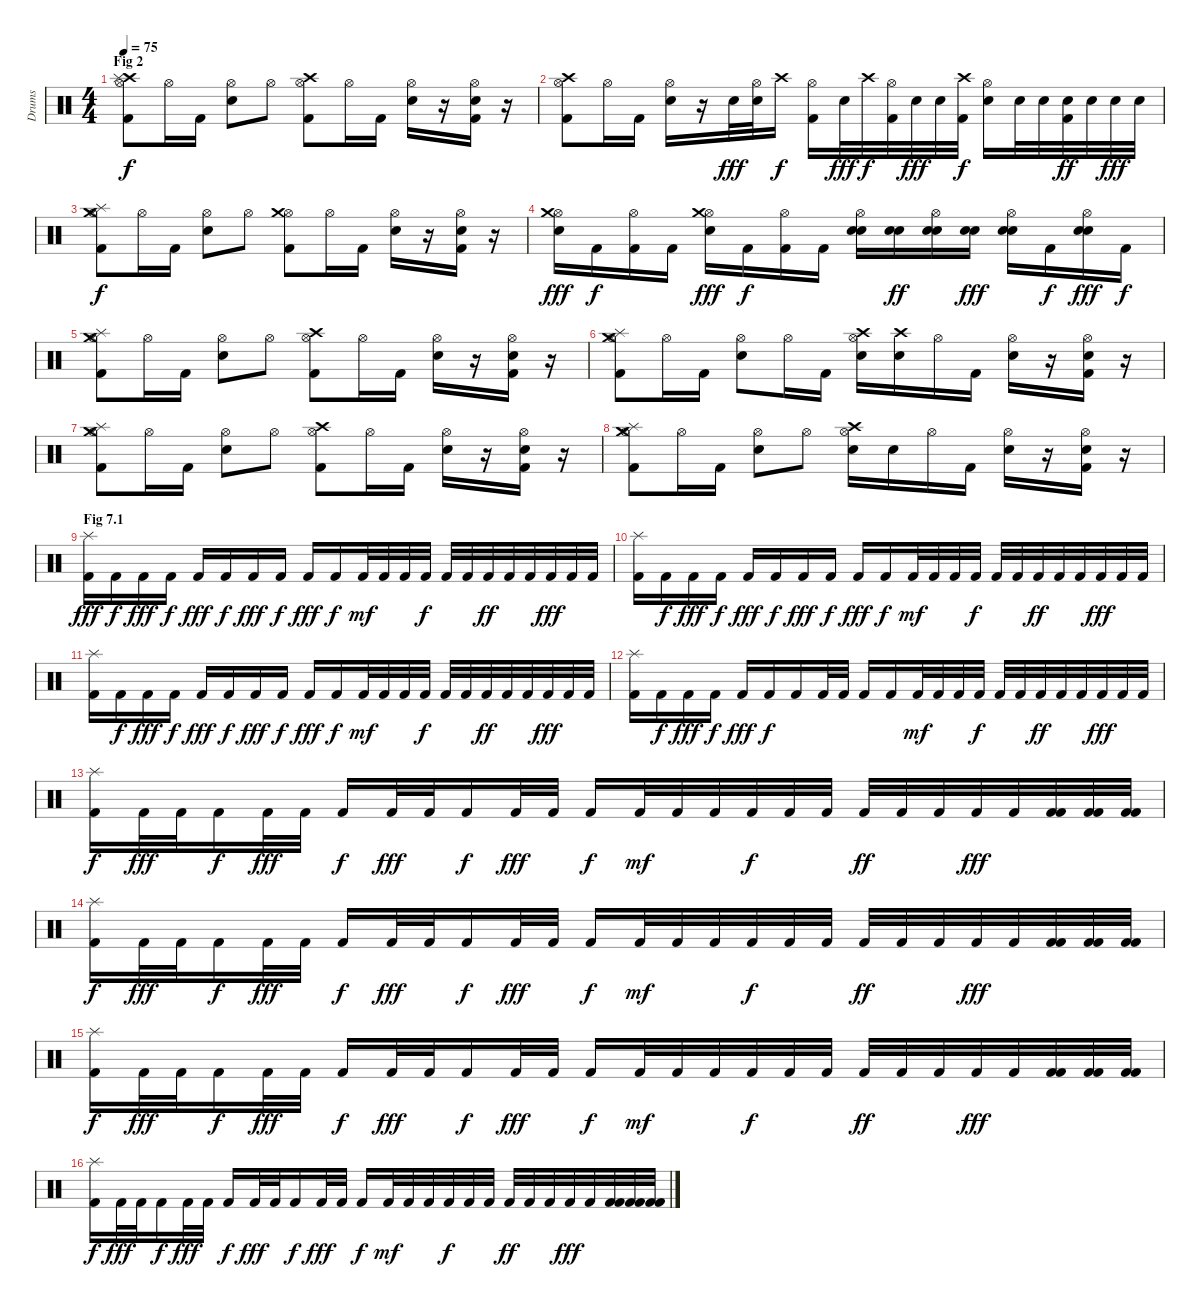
\track ("Drums" "Drums") {instrument percussion}
\staff {score}
\articulation defaults
\ts (4 4)
\section ("" "Fig 2")
\tempo 75
\clef neutral
\ks c
("Hi-Hat (open)" "Kick (hit) 2" "Crash high (hit)" "Splash (hit)").8{dy f} "Hi-Hat (open)".16 "Kick (hit) 2".16 ("Hi-Hat (open)" "Snare (hit) 2").8 "Hi-Hat (open)".8 ("Hi-Hat (open)" "Kick (hit) 2" "Crash high (hit)").8 "Hi-Hat (open)".16 "Kick (hit) 2".16 ("Hi-Hat (open)" "Snare (hit) 2").16 r.16 ("Hi-Hat (open)" "Kick (hit) 2" "Snare (hit) 2").16 r.16 |
("Hi-Hat (open)" "Kick (hit) 2" "Crash high (hit)").8 "Hi-Hat (open)".16 "Kick (hit) 2".16 ("Hi-Hat (open)" "Snare (hit) 2").16 r.16 "Snare (hit) 2".32{dy fff} ("Hi-Hat (open)" "Snare (hit) 2").32 "Crash high (hit)".16{dy f} ("Hi-Hat (open)" "Kick (hit) 2").16 "Snare (hit) 2".32{dy fff} "Crash high (hit)".32{dy f} ("Hi-Hat (open)" "Kick (hit) 2").32 "Snare (hit) 2".32{dy fff} "Snare (hit) 2".32 ("Kick (hit) 2" "Crash high (hit)").32{dy f} ("Hi-Hat (open)" "Snare (hit) 2").16 "Snare (hit) 2".32 "Snare (hit) 2".32 ("Kick (hit) 2" "Snare (hit) 2").32{dy ff} "Snare (hit) 2".32 "Snare (hit) 2".32{dy fff} "Snare (hit) 2".32 |
("Hi-Hat (open)" "Kick (hit) 2" "Crash medium (hit)" "Splash (hit)").8{dy f} "Hi-Hat (open)".16 "Kick (hit) 2".16 ("Hi-Hat (open)" "Snare (hit) 2").8 "Hi-Hat (open)".8 ("Hi-Hat (open)" "Kick (hit) 2" "Crash medium (hit)").8 "Hi-Hat (open)".16 "Kick (hit) 2".16 ("Hi-Hat (open)" "Snare (hit) 2").16 r.16 ("Hi-Hat (open)" "Kick (hit) 2" "Snare (hit) 2").16 r.16 |
("Hi-Hat (open)" "Snare (hit) 2" "Crash medium (hit)").16{dy fff} "Kick (hit) 2".16{dy f} ("Hi-Hat (open)" "Kick (hit) 2").16 "Kick (hit) 2".16 ("Hi-Hat (open)" "Snare (hit) 2" "Crash medium (hit)").16{dy fff} "Kick (hit) 2".16{dy f} ("Hi-Hat (open)" "Kick (hit) 2").16 "Kick (hit) 2".16 ("Hi-Hat (open)" "Snare (hit) 2" "Snare (hit) 2").16 ("Snare (hit) 2" "Snare (hit) 2").16{dy ff} ("Hi-Hat (open)" "Snare (hit) 2" "Snare (hit) 2").16 ("Snare (hit) 2" "Snare (hit) 2").16{dy fff} ("Hi-Hat (open)" "Snare (hit) 2" "Snare (hit) 2").16 "Kick (hit) 2".16{dy f} ("Hi-Hat (open)" "Snare (hit) 2" "Snare (hit) 2").16{dy fff} "Kick (hit) 2".16{dy f} |
("Hi-Hat (open)" "Kick (hit) 2" "Crash medium (hit)" "Splash (hit)").8 "Hi-Hat (open)".16 "Kick (hit) 2".16 ("Hi-Hat (open)" "Snare (hit) 2").8 "Hi-Hat (open)".8 ("Hi-Hat (open)" "Kick (hit) 2" "Crash high (hit)").8 "Hi-Hat (open)".16 "Kick (hit) 2".16 ("Hi-Hat (open)" "Snare (hit) 2").16 r.16 ("Hi-Hat (open)" "Kick (hit) 2" "Snare (hit) 2").16 r.16 |
("Hi-Hat (open)" "Kick (hit) 2" "Crash medium (hit)" "Splash (hit)").8 "Hi-Hat (open)".16 "Kick (hit) 2".16 ("Hi-Hat (open)" "Snare (hit) 2").8 "Hi-Hat (open)".16 "Kick (hit) 2".16 ("Hi-Hat (open)" "Snare (hit) 2" "Crash high (hit)").16 ("Snare (hit) 2" "Crash high (hit)").16 "Hi-Hat (open)".16 "Kick (hit) 2".16 ("Hi-Hat (open)" "Snare (hit) 2").16 r.16 ("Hi-Hat (open)" "Kick (hit) 2" "Snare (hit) 2").16 r.16 |
("Hi-Hat (open)" "Kick (hit) 2" "Crash medium (hit)" "Splash (hit)").8 "Hi-Hat (open)".16 "Kick (hit) 2".16 ("Hi-Hat (open)" "Snare (hit) 2").8 "Hi-Hat (open)".8 ("Hi-Hat (open)" "Kick (hit) 2" "Crash high (hit)").8 "Hi-Hat (open)".16 "Kick (hit) 2".16 ("Hi-Hat (open)" "Snare (hit) 2").16 r.16 ("Hi-Hat (open)" "Kick (hit) 2" "Snare (hit) 2").16 r.16 |
("Hi-Hat (open)" "Kick (hit) 2" "Crash medium (hit)" "Splash (hit)").8 "Hi-Hat (open)".16 "Kick (hit) 2".16 ("Hi-Hat (open)" "Snare (hit) 2").8 "Hi-Hat (open)".8 ("Hi-Hat (open)" "Snare (hit) 2" "Crash high (hit)").16 "Snare (hit) 2".16 "Hi-Hat (open)".16 "Kick (hit) 2".16 ("Hi-Hat (open)" "Snare (hit) 2").16 r.16 ("Hi-Hat (open)" "Kick (hit) 2" "Snare (hit) 2").16 r.16 |
\section ("" "Fig 7.1")
("Kick (hit) 2" "Splash (hit)").16{dy fff} "Kick (hit) 2".16{dy f} "Kick (hit) 2".16{dy fff} "Kick (hit) 2".16{dy f} "Kick (hit) 2".16{dy fff} "Kick (hit) 2".16{dy f} "Kick (hit) 2".16{dy fff} "Kick (hit) 2".16{dy f} "Kick (hit) 2".16{dy fff} "Kick (hit) 2".16{dy f} "Kick (hit) 2".32{dy mf} "Kick (hit) 2".32 "Kick (hit) 2".32 "Kick (hit) 2".32{dy f} "Kick (hit) 2".32 "Kick (hit) 2".32 "Kick (hit) 2".32{dy ff} "Kick (hit) 2".32 "Kick (hit) 2".32 "Kick (hit) 2".32{dy fff} "Kick (hit) 2".32 "Kick (hit) 2".32 |
("Kick (hit) 2" "Splash (hit)").16 "Kick (hit) 2".16{dy f} "Kick (hit) 2".16{dy fff} "Kick (hit) 2".16{dy f} "Kick (hit) 2".16{dy fff} "Kick (hit) 2".16{dy f} "Kick (hit) 2".16{dy fff} "Kick (hit) 2".16{dy f} "Kick (hit) 2".16{dy fff} "Kick (hit) 2".16{dy f} "Kick (hit) 2".32{dy mf} "Kick (hit) 2".32 "Kick (hit) 2".32 "Kick (hit) 2".32{dy f} "Kick (hit) 2".32 "Kick (hit) 2".32 "Kick (hit) 2".32{dy ff} "Kick (hit) 2".32 "Kick (hit) 2".32 "Kick (hit) 2".32{dy fff} "Kick (hit) 2".32 "Kick (hit) 2".32 |
("Kick (hit) 2" "Splash (hit)").16 "Kick (hit) 2".16{dy f} "Kick (hit) 2".16{dy fff} "Kick (hit) 2".16{dy f} "Kick (hit) 2".16{dy fff} "Kick (hit) 2".16{dy f} "Kick (hit) 2".16{dy fff} "Kick (hit) 2".16{dy f} "Kick (hit) 2".16{dy fff} "Kick (hit) 2".16{dy f} "Kick (hit) 2".32{dy mf} "Kick (hit) 2".32 "Kick (hit) 2".32 "Kick (hit) 2".32{dy f} "Kick (hit) 2".32 "Kick (hit) 2".32 "Kick (hit) 2".32{dy ff} "Kick (hit) 2".32 "Kick (hit) 2".32 "Kick (hit) 2".32{dy fff} "Kick (hit) 2".32 "Kick (hit) 2".32 |
("Kick (hit) 2" "Splash (hit)").16 "Kick (hit) 2".16{dy f} "Kick (hit) 2".16{dy fff} "Kick (hit) 2".16{dy f} "Kick (hit) 2".16{dy fff} "Kick (hit) 2".16{dy f} "Kick (hit) 2".16 "Kick (hit) 2".32 "Kick (hit) 2".32 "Kick (hit) 2".16 "Kick (hit) 2".16 "Kick (hit) 2".32{dy mf} "Kick (hit) 2".32 "Kick (hit) 2".32 "Kick (hit) 2".32{dy f} "Kick (hit) 2".32 "Kick (hit) 2".32 "Kick (hit) 2".32{dy ff} "Kick (hit) 2".32 "Kick (hit) 2".32 "Kick (hit) 2".32{dy fff} "Kick (hit) 2".32 "Kick (hit) 2".32 |
("Kick (hit) 2" "Splash (hit)").16{dy f} "Kick (hit) 2".32{dy fff} "Kick (hit) 2".32 "Kick (hit) 2".16{dy f} "Kick (hit) 2".32{dy fff} "Kick (hit) 2".32 "Kick (hit) 2".16{dy f} "Kick (hit) 2".32{dy fff} "Kick (hit) 2".32 "Kick (hit) 2".16{dy f} "Kick (hit) 2".32{dy fff} "Kick (hit) 2".32 "Kick (hit) 2".16{dy f} "Kick (hit) 2".32{dy mf} "Kick (hit) 2".32 "Kick (hit) 2".32 "Kick (hit) 2".32{dy f} "Kick (hit) 2".32 "Kick (hit) 2".32 "Kick (hit) 2".32{dy ff} "Kick (hit) 2".32 "Kick (hit) 2".32 "Kick (hit) 2".32{dy fff} "Kick (hit) 2".32 ("Kick (hit) 2" "Kick (hit) 2").32 ("Kick (hit) 2" "Kick (hit) 2").32 ("Kick (hit) 2" "Kick (hit) 2").32 |
("Kick (hit) 2" "Splash (hit)").16{dy f} "Kick (hit) 2".32{dy fff} "Kick (hit) 2".32 "Kick (hit) 2".16{dy f} "Kick (hit) 2".32{dy fff} "Kick (hit) 2".32 "Kick (hit) 2".16{dy f} "Kick (hit) 2".32{dy fff} "Kick (hit) 2".32 "Kick (hit) 2".16{dy f} "Kick (hit) 2".32{dy fff} "Kick (hit) 2".32 "Kick (hit) 2".16{dy f} "Kick (hit) 2".32{dy mf} "Kick (hit) 2".32 "Kick (hit) 2".32 "Kick (hit) 2".32{dy f} "Kick (hit) 2".32 "Kick (hit) 2".32 "Kick (hit) 2".32{dy ff} "Kick (hit) 2".32 "Kick (hit) 2".32 "Kick (hit) 2".32{dy fff} "Kick (hit) 2".32 ("Kick (hit) 2" "Kick (hit) 2").32 ("Kick (hit) 2" "Kick (hit) 2").32 ("Kick (hit) 2" "Kick (hit) 2").32 |
("Kick (hit) 2" "Splash (hit)").16{dy f} "Kick (hit) 2".32{dy fff} "Kick (hit) 2".32 "Kick (hit) 2".16{dy f} "Kick (hit) 2".32{dy fff} "Kick (hit) 2".32 "Kick (hit) 2".16{dy f} "Kick (hit) 2".32{dy fff} "Kick (hit) 2".32 "Kick (hit) 2".16{dy f} "Kick (hit) 2".32{dy fff} "Kick (hit) 2".32 "Kick (hit) 2".16{dy f} "Kick (hit) 2".32{dy mf} "Kick (hit) 2".32 "Kick (hit) 2".32 "Kick (hit) 2".32{dy f} "Kick (hit) 2".32 "Kick (hit) 2".32 "Kick (hit) 2".32{dy ff} "Kick (hit) 2".32 "Kick (hit) 2".32 "Kick (hit) 2".32{dy fff} "Kick (hit) 2".32 ("Kick (hit) 2" "Kick (hit) 2").32 ("Kick (hit) 2" "Kick (hit) 2").32 ("Kick (hit) 2" "Kick (hit) 2").32 |
("Kick (hit) 2" "Splash (hit)").16{dy f} "Kick (hit) 2".32{dy fff} "Kick (hit) 2".32 "Kick (hit) 2".16{dy f} "Kick (hit) 2".32{dy fff} "Kick (hit) 2".32 "Kick (hit) 2".16{dy f} "Kick (hit) 2".32{dy fff} "Kick (hit) 2".32 "Kick (hit) 2".16{dy f} "Kick (hit) 2".32{dy fff} "Kick (hit) 2".32 "Kick (hit) 2".16{dy f} "Kick (hit) 2".32{dy mf} "Kick (hit) 2".32 "Kick (hit) 2".32 "Kick (hit) 2".32{dy f} "Kick (hit) 2".32 "Kick (hit) 2".32 "Kick (hit) 2".32{dy ff} "Kick (hit) 2".32 "Kick (hit) 2".32 "Kick (hit) 2".32{dy fff} "Kick (hit) 2".32 ("Kick (hit) 2" "Kick (hit) 2").32 ("Kick (hit) 2" "Kick (hit) 2").32 ("Kick (hit) 2" "Kick (hit) 2").32
